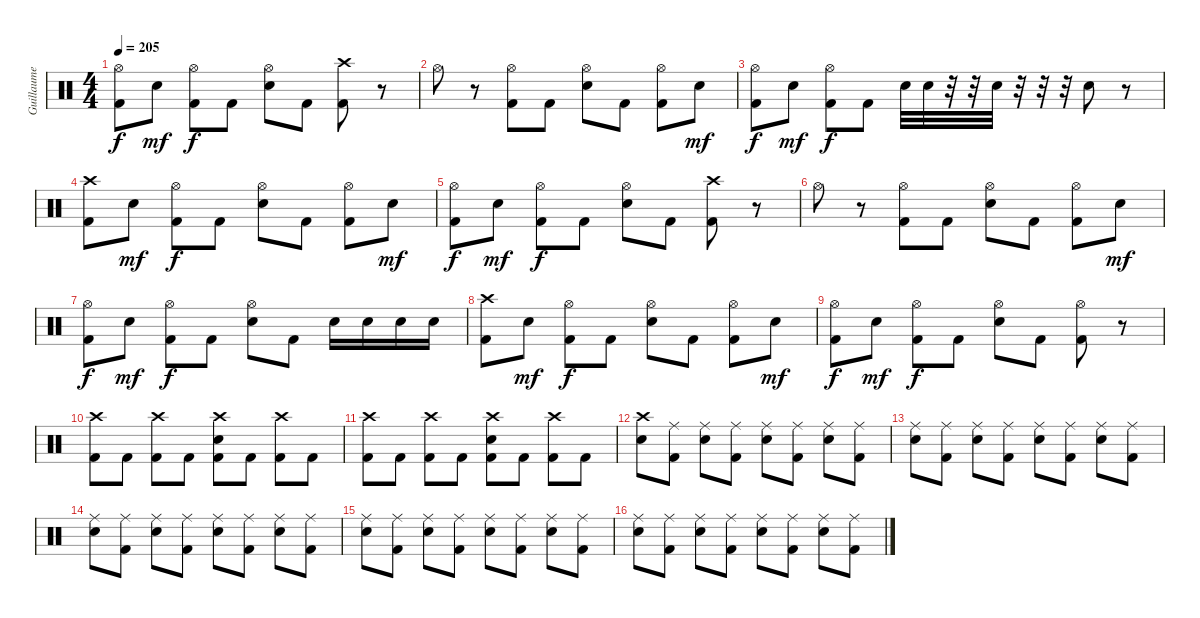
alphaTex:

\track ("Guillaume" "Guillaume") {instrument percussion}
\staff {score}
\articulation defaults
\ts (4 4)
\tempo 205
\clef neutral
\ks c
("Hi-Hat (open)" "Kick (hit) 2").8{dy f} "Snare (hit) 2".8{dy mf} ("Hi-Hat (open)" "Kick (hit) 2").8{dy f} "Kick (hit) 2".8 ("Hi-Hat (open)" "Snare (hit) 2").8 "Kick (hit) 2".8 ("Crash high (hit)" "Kick (hit) 2").8 r.8 |
"Hi-Hat (open)".8 r.8 ("Hi-Hat (open)" "Kick (hit) 2").8 "Kick (hit) 2".8 ("Hi-Hat (open)" "Snare (hit) 2").8 "Kick (hit) 2".8 ("Hi-Hat (open)" "Kick (hit) 2").8 "Snare (hit) 2".8{dy mf} |
("Hi-Hat (open)" "Kick (hit) 2").8{dy f} "Snare (hit) 2".8{dy mf} ("Hi-Hat (open)" "Kick (hit) 2").8{dy f} "Kick (hit) 2".8 "Snare (hit) 2".32 "Snare (hit) 2".32 r.32 r.32 "Snare (hit) 2".32 r.32 r.32 r.32 "Snare (hit) 2".8 r.8 |
("Crash high (hit)" "Kick (hit) 2").8 "Snare (hit) 2".8{dy mf} ("Hi-Hat (open)" "Kick (hit) 2").8{dy f} "Kick (hit) 2".8 ("Hi-Hat (open)" "Snare (hit) 2").8 "Kick (hit) 2".8 ("Hi-Hat (open)" "Kick (hit) 2").8 "Snare (hit) 2".8{dy mf} |
("Hi-Hat (open)" "Kick (hit) 2").8{dy f} "Snare (hit) 2".8{dy mf} ("Hi-Hat (open)" "Kick (hit) 2").8{dy f} "Kick (hit) 2".8 ("Hi-Hat (open)" "Snare (hit) 2").8 "Kick (hit) 2".8 ("Crash high (hit)" "Kick (hit) 2").8 r.8 |
"Hi-Hat (open)".8 r.8 ("Hi-Hat (open)" "Kick (hit) 2").8 "Kick (hit) 2".8 ("Hi-Hat (open)" "Snare (hit) 2").8 "Kick (hit) 2".8 ("Hi-Hat (open)" "Kick (hit) 2").8 "Snare (hit) 2".8{dy mf} |
("Hi-Hat (open)" "Kick (hit) 2").8{dy f} "Snare (hit) 2".8{dy mf} ("Hi-Hat (open)" "Kick (hit) 2").8{dy f} "Kick (hit) 2".8 ("Hi-Hat (open)" "Snare (hit) 2").8 "Kick (hit) 2".8 "Snare (hit) 2".16 "Snare (hit) 2".16 "Snare (hit) 2".16 "Snare (hit) 2".16 |
("Crash high (hit)" "Kick (hit) 2").8 "Snare (hit) 2".8{dy mf} ("Hi-Hat (open)" "Kick (hit) 2").8{dy f} "Kick (hit) 2".8 ("Hi-Hat (open)" "Snare (hit) 2").8 "Kick (hit) 2".8 ("Hi-Hat (open)" "Kick (hit) 2").8 "Snare (hit) 2".8{dy mf} |
("Hi-Hat (open)" "Kick (hit) 2").8{dy f} "Snare (hit) 2".8{dy mf} ("Hi-Hat (open)" "Kick (hit) 2").8{dy f} "Kick (hit) 2".8 ("Hi-Hat (open)" "Snare (hit) 2").8 "Kick (hit) 2".8 ("Hi-Hat (open)" "Kick (hit) 2").8 r.8 |
("Crash high (hit)" "Kick (hit) 2").8 "Kick (hit) 2".8 ("Crash high (hit)" "Kick (hit) 2").8 "Kick (hit) 2".8 ("Crash high (hit)" "Snare (hit) 2" "Kick (hit) 2").8 "Kick (hit) 2".8 ("Crash high (hit)" "Kick (hit) 2").8 "Kick (hit) 2".8 |
("Crash high (hit)" "Kick (hit) 2").8 "Kick (hit) 2".8 ("Crash high (hit)" "Kick (hit) 2").8 "Kick (hit) 2".8 ("Crash high (hit)" "Snare (hit) 2" "Kick (hit) 2").8 "Kick (hit) 2".8 ("Crash high (hit)" "Kick (hit) 2").8 "Kick (hit) 2".8 |
("Crash high (hit)" "Snare (hit) 2").8 ("Ride (middle)" "Kick (hit) 2").8 ("Ride (middle)" "Snare (hit) 2").8 ("Ride (middle)" "Kick (hit) 2").8 ("Ride (middle)" "Snare (hit) 2").8 ("Ride (middle)" "Kick (hit) 2").8 ("Ride (middle)" "Snare (hit) 2").8 ("Ride (middle)" "Kick (hit) 2").8 |
("Ride (middle)" "Snare (hit) 2").8 ("Ride (middle)" "Kick (hit) 2").8 ("Ride (middle)" "Snare (hit) 2").8 ("Ride (middle)" "Kick (hit) 2").8 ("Ride (middle)" "Snare (hit) 2").8 ("Ride (middle)" "Kick (hit) 2").8 ("Ride (middle)" "Snare (hit) 2").8 ("Ride (middle)" "Kick (hit) 2").8 |
("Ride (middle)" "Snare (hit) 2").8 ("Ride (middle)" "Kick (hit) 2").8 ("Ride (middle)" "Snare (hit) 2").8 ("Ride (middle)" "Kick (hit) 2").8 ("Ride (middle)" "Snare (hit) 2").8 ("Ride (middle)" "Kick (hit) 2").8 ("Ride (middle)" "Snare (hit) 2").8 ("Ride (middle)" "Kick (hit) 2").8 |
("Ride (middle)" "Snare (hit) 2").8 ("Ride (middle)" "Kick (hit) 2").8 ("Ride (middle)" "Snare (hit) 2").8 ("Ride (middle)" "Kick (hit) 2").8 ("Ride (middle)" "Snare (hit) 2").8 ("Ride (middle)" "Kick (hit) 2").8 ("Ride (middle)" "Snare (hit) 2").8 ("Ride (middle)" "Kick (hit) 2").8 |
("Ride (middle)" "Snare (hit) 2").8 ("Ride (middle)" "Kick (hit) 2").8 ("Ride (middle)" "Snare (hit) 2").8 ("Ride (middle)" "Kick (hit) 2").8 ("Ride (middle)" "Snare (hit) 2").8 ("Ride (middle)" "Kick (hit) 2").8 ("Ride (middle)" "Snare (hit) 2").8 ("Ride (middle)" "Kick (hit) 2").8
